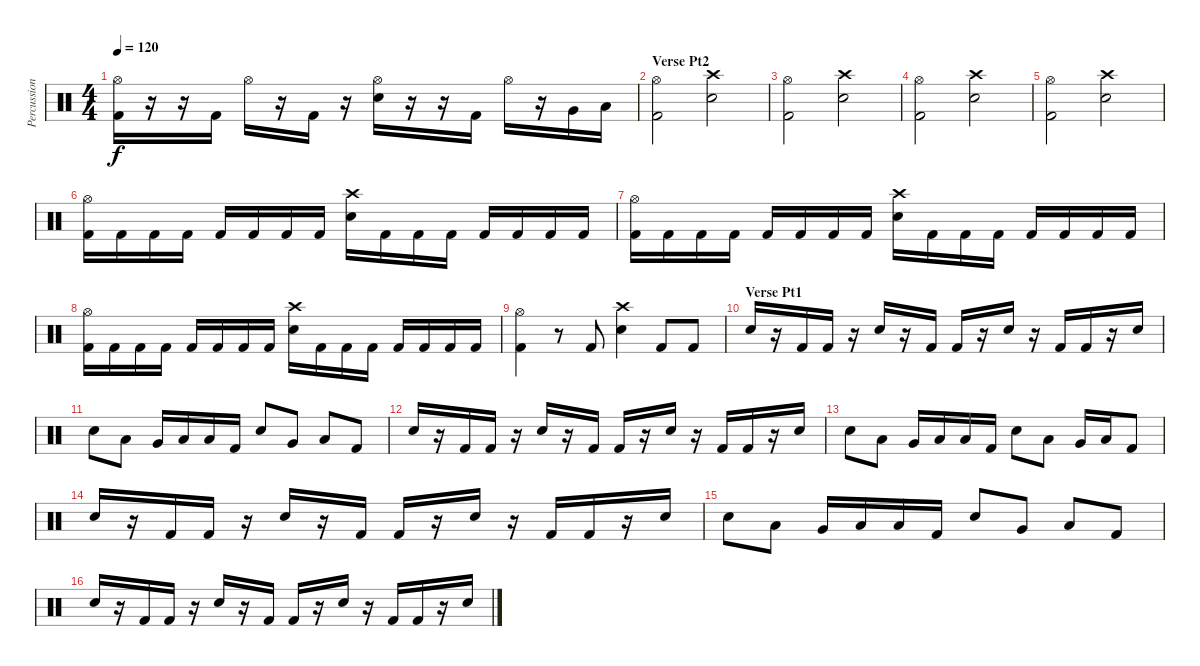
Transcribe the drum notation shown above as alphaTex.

\track ("Percussion" "Percussion") {instrument percussion}
\staff {score}
\articulation defaults
\ts (4 4)
\tempo 120
\clef neutral
\ks c
("Hi-Hat (open)" "Kick (hit) 2").16{dy f} r.16 r.16 "Kick (hit) 2".16 "Hi-Hat (open)".16 r.16 "Kick (hit) 2".16 r.16 ("Hi-Hat (open)" "Electric Snare (hit)").16 r.16 r.16 "Kick (hit) 2".16 "Hi-Hat (open)".16 r.16 "Very Low Tom (hit)".16 "Low Floor Tom (hit)".16 |
\section ("" "Verse Pt2")
("Hi-Hat (open)" "Kick (hit) 2").2 ("Crash high (hit)" "Electric Snare (hit)").2 |
("Hi-Hat (open)" "Kick (hit) 2").2 ("Crash high (hit)" "Electric Snare (hit)").2 |
("Hi-Hat (open)" "Kick (hit) 2").2 ("Crash high (hit)" "Electric Snare (hit)").2 |
("Hi-Hat (open)" "Kick (hit) 2").2 ("Crash high (hit)" "Electric Snare (hit)").2 |
("Hi-Hat (open)" "Kick (hit) 2").16 "Kick (hit) 2".16 "Kick (hit) 2".16 "Kick (hit) 2".16 "Kick (hit) 2".16 "Kick (hit) 2".16 "Kick (hit) 2".16 "Kick (hit) 2".16 ("Crash high (hit)" "Electric Snare (hit)").16 "Kick (hit) 2".16 "Kick (hit) 2".16 "Kick (hit) 2".16 "Kick (hit) 2".16 "Kick (hit) 2".16 "Kick (hit) 2".16 "Kick (hit) 2".16 |
("Hi-Hat (open)" "Kick (hit) 2").16 "Kick (hit) 2".16 "Kick (hit) 2".16 "Kick (hit) 2".16 "Kick (hit) 2".16 "Kick (hit) 2".16 "Kick (hit) 2".16 "Kick (hit) 2".16 ("Crash high (hit)" "Electric Snare (hit)").16 "Kick (hit) 2".16 "Kick (hit) 2".16 "Kick (hit) 2".16 "Kick (hit) 2".16 "Kick (hit) 2".16 "Kick (hit) 2".16 "Kick (hit) 2".16 |
("Hi-Hat (open)" "Kick (hit) 2").16 "Kick (hit) 2".16 "Kick (hit) 2".16 "Kick (hit) 2".16 "Kick (hit) 2".16 "Kick (hit) 2".16 "Kick (hit) 2".16 "Kick (hit) 2".16 ("Crash high (hit)" "Electric Snare (hit)").16 "Kick (hit) 2".16 "Kick (hit) 2".16 "Kick (hit) 2".16 "Kick (hit) 2".16 "Kick (hit) 2".16 "Kick (hit) 2".16 "Kick (hit) 2".16 |
("Hi-Hat (open)" "Kick (hit) 2").4 r.8 "Kick (hit) 2".8 ("Crash high (hit)" "Electric Snare (hit)").4 "Kick (hit) 2".8 "Kick (hit) 2".8 |
\section ("" "Verse Pt1")
"Electric Snare (hit)".16 r.16 "Kick (hit) 2".16 "Kick (hit) 2".16 r.16 "Electric Snare (hit)".16 r.16 "Kick (hit) 2".16 "Kick (hit) 2".16 r.16 "Electric Snare (hit)".16 r.16 "Kick (hit) 2".16 "Kick (hit) 2".16 r.16 "Electric Snare (hit)".16 |
"Electric Snare (hit)".8 "Low Tom (hit)".8 "Very Low Tom (hit)".16 "Low Floor Tom (hit)".16 "Low Floor Tom (hit)".16 "Kick (hit) 2".16 "Electric Snare (hit)".8 "Very Low Tom (hit)".8 "Low Floor Tom (hit)".8 "Kick (hit) 2".8 |
"Electric Snare (hit)".16 r.16 "Kick (hit) 2".16 "Kick (hit) 2".16 r.16 "Electric Snare (hit)".16 r.16 "Kick (hit) 2".16 "Kick (hit) 2".16 r.16 "Electric Snare (hit)".16 r.16 "Kick (hit) 2".16 "Kick (hit) 2".16 r.16 "Electric Snare (hit)".16 |
"Electric Snare (hit)".8 "Low Tom (hit)".8 "Very Low Tom (hit)".16 "Low Floor Tom (hit)".16 "Low Floor Tom (hit)".16 "Kick (hit) 2".16 "Electric Snare (hit)".8 "Low Tom (hit)".8 "Very Low Tom (hit)".16 "Low Floor Tom (hit)".16 "Kick (hit) 2".8 |
"Electric Snare (hit)".16 r.16 "Kick (hit) 2".16 "Kick (hit) 2".16 r.16 "Electric Snare (hit)".16 r.16 "Kick (hit) 2".16 "Kick (hit) 2".16 r.16 "Electric Snare (hit)".16 r.16 "Kick (hit) 2".16 "Kick (hit) 2".16 r.16 "Electric Snare (hit)".16 |
"Electric Snare (hit)".8 "Low Tom (hit)".8 "Very Low Tom (hit)".16 "Low Floor Tom (hit)".16 "Low Floor Tom (hit)".16 "Kick (hit) 2".16 "Electric Snare (hit)".8 "Very Low Tom (hit)".8 "Low Floor Tom (hit)".8 "Kick (hit) 2".8 |
"Electric Snare (hit)".16 r.16 "Kick (hit) 2".16 "Kick (hit) 2".16 r.16 "Electric Snare (hit)".16 r.16 "Kick (hit) 2".16 "Kick (hit) 2".16 r.16 "Electric Snare (hit)".16 r.16 "Kick (hit) 2".16 "Kick (hit) 2".16 r.16 "Electric Snare (hit)".16
